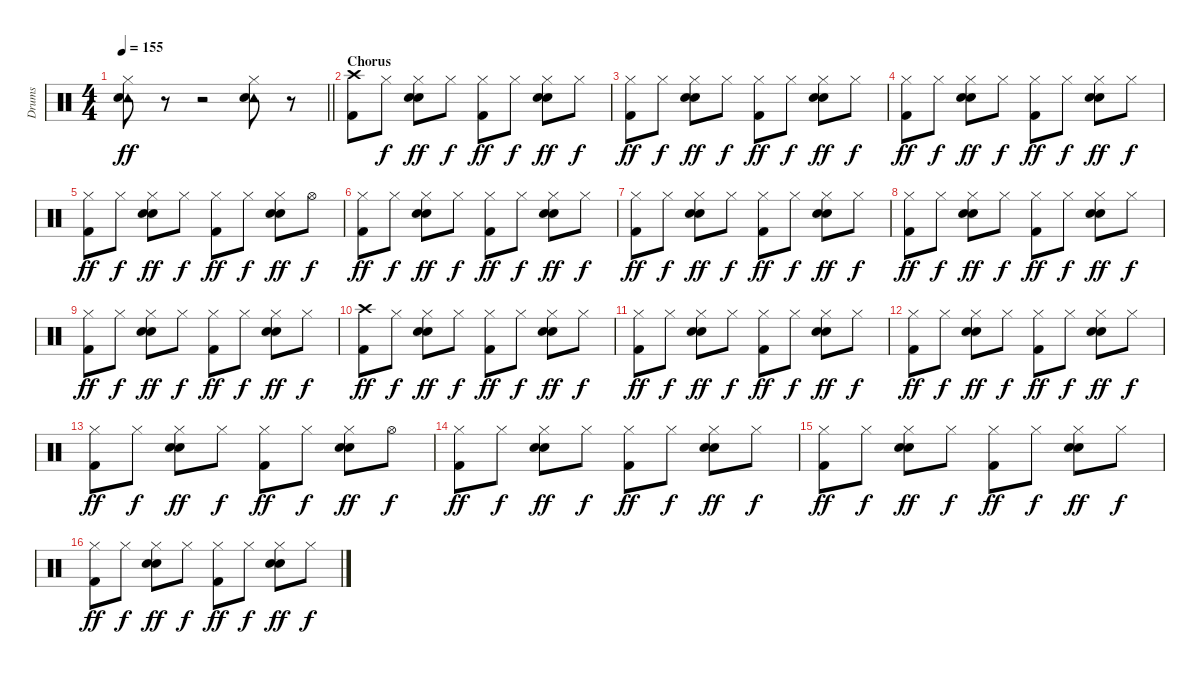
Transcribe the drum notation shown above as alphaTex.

\track ("Drums" "Drums") {instrument percussion}
\staff {score}
\articulation defaults
\ts (4 4)
\tempo 155
\clef neutral
\barLineRight lightlight
\ks c
("Tambourine (hit)" "Hi-Hat (closed)" "Snare (hit) 2").8{dy ff} r.8 r.2 ("Tambourine (hit)" "Hi-Hat (closed)" "Snare (hit) 2").8 r.8 |
\section ("" "Chorus")
("Crash high (hit)" "Kick (hit) 2").8 "Hi-Hat (closed)".8{dy f} ("Hand Clap (hit)" "Hi-Hat (closed)" "Snare (hit) 2").8{dy ff} "Hi-Hat (closed)".8{dy f} ("Hi-Hat (closed)" "Kick (hit) 2").8{dy ff} "Hi-Hat (closed)".8{dy f} ("Hand Clap (hit)" "Hi-Hat (closed)" "Snare (hit) 2").8{dy ff} "Hi-Hat (closed)".8{dy f} |
("Hi-Hat (closed)" "Kick (hit) 2").8{dy ff} "Hi-Hat (closed)".8{dy f} ("Hand Clap (hit)" "Hi-Hat (closed)" "Snare (hit) 2").8{dy ff} "Hi-Hat (closed)".8{dy f} ("Hi-Hat (closed)" "Kick (hit) 2").8{dy ff} "Hi-Hat (closed)".8{dy f} ("Hand Clap (hit)" "Hi-Hat (closed)" "Snare (hit) 2").8{dy ff} "Hi-Hat (closed)".8{dy f} |
("Hi-Hat (closed)" "Kick (hit) 2").8{dy ff} "Hi-Hat (closed)".8{dy f} ("Hand Clap (hit)" "Hi-Hat (closed)" "Snare (hit) 2").8{dy ff} "Hi-Hat (closed)".8{dy f} ("Hi-Hat (closed)" "Kick (hit) 2").8{dy ff} "Hi-Hat (closed)".8{dy f} ("Hand Clap (hit)" "Hi-Hat (closed)" "Snare (hit) 2").8{dy ff} "Hi-Hat (closed)".8{dy f} |
("Hi-Hat (closed)" "Kick (hit) 2").8{dy ff} "Hi-Hat (closed)".8{dy f} ("Hand Clap (hit)" "Hi-Hat (closed)" "Snare (hit) 2").8{dy ff} "Hi-Hat (closed)".8{dy f} ("Hi-Hat (closed)" "Kick (hit) 2").8{dy ff} "Hi-Hat (closed)".8{dy f} ("Hand Clap (hit)" "Hi-Hat (closed)" "Snare (hit) 2").8{dy ff} "Hi-Hat (open)".8{dy f} |
("Hi-Hat (closed)" "Kick (hit) 2").8{dy ff} "Hi-Hat (closed)".8{dy f} ("Hand Clap (hit)" "Hi-Hat (closed)" "Snare (hit) 2").8{dy ff} "Hi-Hat (closed)".8{dy f} ("Hi-Hat (closed)" "Kick (hit) 2").8{dy ff} "Hi-Hat (closed)".8{dy f} ("Hand Clap (hit)" "Hi-Hat (closed)" "Snare (hit) 2").8{dy ff} "Hi-Hat (closed)".8{dy f} |
("Hi-Hat (closed)" "Kick (hit) 2").8{dy ff} "Hi-Hat (closed)".8{dy f} ("Hand Clap (hit)" "Hi-Hat (closed)" "Snare (hit) 2").8{dy ff} "Hi-Hat (closed)".8{dy f} ("Hi-Hat (closed)" "Kick (hit) 2").8{dy ff} "Hi-Hat (closed)".8{dy f} ("Hand Clap (hit)" "Hi-Hat (closed)" "Snare (hit) 2").8{dy ff} "Hi-Hat (closed)".8{dy f} |
("Hi-Hat (closed)" "Kick (hit) 2").8{dy ff} "Hi-Hat (closed)".8{dy f} ("Hand Clap (hit)" "Hi-Hat (closed)" "Snare (hit) 2").8{dy ff} "Hi-Hat (closed)".8{dy f} ("Hi-Hat (closed)" "Kick (hit) 2").8{dy ff} "Hi-Hat (closed)".8{dy f} ("Hand Clap (hit)" "Hi-Hat (closed)" "Snare (hit) 2").8{dy ff} "Hi-Hat (closed)".8{dy f} |
("Hi-Hat (closed)" "Kick (hit) 2").8{dy ff} "Hi-Hat (closed)".8{dy f} ("Hand Clap (hit)" "Hi-Hat (closed)" "Snare (hit) 2").8{dy ff} "Hi-Hat (closed)".8{dy f} ("Hi-Hat (closed)" "Kick (hit) 2").8{dy ff} "Hi-Hat (closed)".8{dy f} ("Hand Clap (hit)" "Hi-Hat (closed)" "Snare (hit) 2").8{dy ff} "Hi-Hat (closed)".8{dy f} |
("Crash high (hit)" "Kick (hit) 2").8{dy ff} "Hi-Hat (closed)".8{dy f} ("Hand Clap (hit)" "Hi-Hat (closed)" "Snare (hit) 2").8{dy ff} "Hi-Hat (closed)".8{dy f} ("Hi-Hat (closed)" "Kick (hit) 2").8{dy ff} "Hi-Hat (closed)".8{dy f} ("Hand Clap (hit)" "Hi-Hat (closed)" "Snare (hit) 2").8{dy ff} "Hi-Hat (closed)".8{dy f} |
("Hi-Hat (closed)" "Kick (hit) 2").8{dy ff} "Hi-Hat (closed)".8{dy f} ("Hand Clap (hit)" "Hi-Hat (closed)" "Snare (hit) 2").8{dy ff} "Hi-Hat (closed)".8{dy f} ("Hi-Hat (closed)" "Kick (hit) 2").8{dy ff} "Hi-Hat (closed)".8{dy f} ("Hand Clap (hit)" "Hi-Hat (closed)" "Snare (hit) 2").8{dy ff} "Hi-Hat (closed)".8{dy f} |
("Hi-Hat (closed)" "Kick (hit) 2").8{dy ff} "Hi-Hat (closed)".8{dy f} ("Hand Clap (hit)" "Hi-Hat (closed)" "Snare (hit) 2").8{dy ff} "Hi-Hat (closed)".8{dy f} ("Hi-Hat (closed)" "Kick (hit) 2").8{dy ff} "Hi-Hat (closed)".8{dy f} ("Hand Clap (hit)" "Hi-Hat (closed)" "Snare (hit) 2").8{dy ff} "Hi-Hat (closed)".8{dy f} |
("Hi-Hat (closed)" "Kick (hit) 2").8{dy ff} "Hi-Hat (closed)".8{dy f} ("Hand Clap (hit)" "Hi-Hat (closed)" "Snare (hit) 2").8{dy ff} "Hi-Hat (closed)".8{dy f} ("Hi-Hat (closed)" "Kick (hit) 2").8{dy ff} "Hi-Hat (closed)".8{dy f} ("Hand Clap (hit)" "Hi-Hat (closed)" "Snare (hit) 2").8{dy ff} "Hi-Hat (open)".8{dy f} |
("Hi-Hat (closed)" "Kick (hit) 2").8{dy ff} "Hi-Hat (closed)".8{dy f} ("Hand Clap (hit)" "Hi-Hat (closed)" "Snare (hit) 2").8{dy ff} "Hi-Hat (closed)".8{dy f} ("Hi-Hat (closed)" "Kick (hit) 2").8{dy ff} "Hi-Hat (closed)".8{dy f} ("Hand Clap (hit)" "Hi-Hat (closed)" "Snare (hit) 2").8{dy ff} "Hi-Hat (closed)".8{dy f} |
("Hi-Hat (closed)" "Kick (hit) 2").8{dy ff} "Hi-Hat (closed)".8{dy f} ("Hand Clap (hit)" "Hi-Hat (closed)" "Snare (hit) 2").8{dy ff} "Hi-Hat (closed)".8{dy f} ("Hi-Hat (closed)" "Kick (hit) 2").8{dy ff} "Hi-Hat (closed)".8{dy f} ("Hand Clap (hit)" "Hi-Hat (closed)" "Snare (hit) 2").8{dy ff} "Hi-Hat (closed)".8{dy f} |
("Hi-Hat (closed)" "Kick (hit) 2").8{dy ff} "Hi-Hat (closed)".8{dy f} ("Hand Clap (hit)" "Hi-Hat (closed)" "Snare (hit) 2").8{dy ff} "Hi-Hat (closed)".8{dy f} ("Hi-Hat (closed)" "Kick (hit) 2").8{dy ff} "Hi-Hat (closed)".8{dy f} ("Hand Clap (hit)" "Hi-Hat (closed)" "Snare (hit) 2").8{dy ff} "Hi-Hat (closed)".8{dy f}
